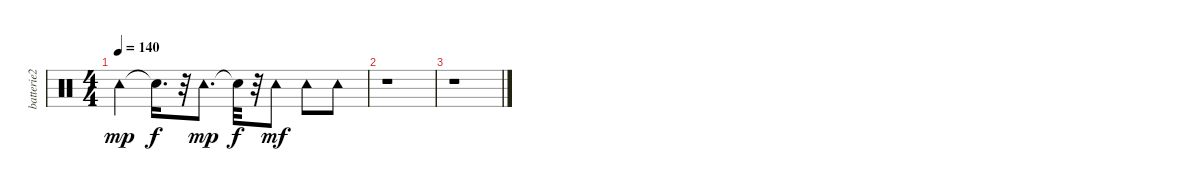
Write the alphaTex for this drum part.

\track ("batterie2" "batterie2") {instrument percussion}
\staff {score}
\articulation defaults
\ts (4 4)
\tempo 140
\clef neutral
\ks c "Tambourine (hit)".4{dy mp} "Snare (hit)"{t}.16{d dy f}
r.32 "Tambourine (hit)".8{d dy mp} "Snare (hit)"{t}.32{dy f} r.32 "Tambourine (hit)".8{dy mf} "Tambourine (hit)".8 "Tambourine (hit)".8 |
r.1 |
r.1
